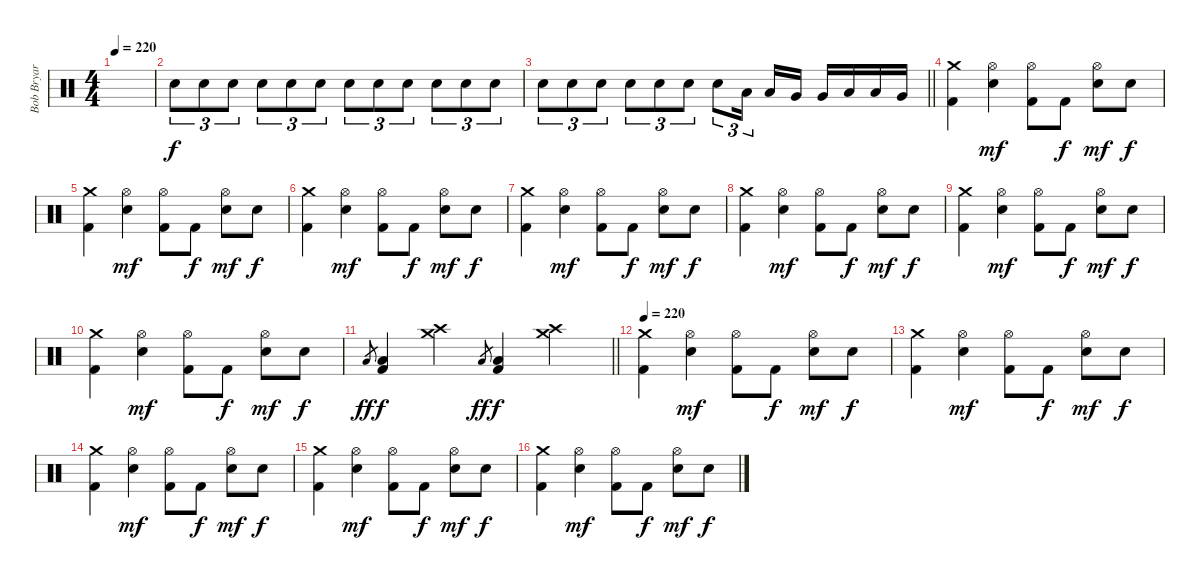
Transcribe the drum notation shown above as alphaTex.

\track ("Bob Bryar" "Bob Bryar") {instrument percussion}
\staff {score}
\articulation defaults
\ts (4 4)
\tempo 220
\clef neutral
\ks c
|
"Snare (hit) 2".8{tu (3 2)} "Snare (hit) 2".8{tu (3 2)} "Snare (hit) 2".8{tu (3 2)} "Snare (hit) 2".8{tu (3 2)} "Snare (hit) 2".8{tu (3 2)} "Snare (hit) 2".8{tu (3 2)} "Snare (hit) 2".8{tu (3 2)} "Snare (hit) 2".8{tu (3 2)} "Snare (hit) 2".8{tu (3 2)} "Snare (hit) 2".8{tu (3 2)} "Snare (hit) 2".8{tu (3 2)} "Snare (hit) 2".8{tu (3 2)} |
\barLineRight lightlight "Snare (hit) 2".8{tu (3 2)} "Snare (hit) 2".8{tu (3 2)} "Snare (hit) 2".8{tu (3 2)} "Snare (hit) 2".8{tu (3 2)} "Snare (hit) 2".8{tu (3 2)} "Snare (hit) 2".8{tu (3 2)} "Snare (hit) 2".8{tu (3 2)} "Low Tom (hit)".16{tu (3 2) beam splitsecondary} "Low Tom (hit)".16 "Very Low Tom (hit)".16 "Very Low Tom (hit)".16 "Low Floor Tom (hit)".16 "Low Floor Tom (hit)".16 "Very Low Tom (hit)".16
|
("Crash medium (hit)" "Kick (hit) 2").4 ("Hi-Hat (open)" "Electric Snare (hit)").4{dy mf} ("Hi-Hat (open)" "Kick (hit) 2").8 "Kick (hit) 2".8{dy f} ("Hi-Hat (open)" "Electric Snare (hit)").8{dy mf} "Electric Snare (hit)".8{dy f} |
("Crash medium (hit)" "Kick (hit) 2").4 ("Hi-Hat (open)" "Electric Snare (hit)").4{dy mf} ("Hi-Hat (open)" "Kick (hit) 2").8 "Kick (hit) 2".8{dy f} ("Hi-Hat (open)" "Electric Snare (hit)").8{dy mf} "Electric Snare (hit)".8{dy f} |
("Crash medium (hit)" "Kick (hit) 2").4 ("Hi-Hat (open)" "Electric Snare (hit)").4{dy mf} ("Hi-Hat (open)" "Kick (hit) 2").8 "Kick (hit) 2".8{dy f} ("Hi-Hat (open)" "Electric Snare (hit)").8{dy mf} "Electric Snare (hit)".8{dy f} |
("Crash medium (hit)" "Kick (hit) 2").4 ("Hi-Hat (open)" "Electric Snare (hit)").4{dy mf} ("Hi-Hat (open)" "Kick (hit) 2").8 "Kick (hit) 2".8{dy f} ("Hi-Hat (open)" "Electric Snare (hit)").8{dy mf} "Electric Snare (hit)".8{dy f} |
("Crash medium (hit)" "Kick (hit) 2").4 ("Hi-Hat (open)" "Electric Snare (hit)").4{dy mf} ("Hi-Hat (open)" "Kick (hit) 2").8 "Kick (hit) 2".8{dy f} ("Hi-Hat (open)" "Electric Snare (hit)").8{dy mf} "Electric Snare (hit)".8{dy f} |
("Crash medium (hit)" "Kick (hit) 2").4 ("Hi-Hat (open)" "Electric Snare (hit)").4{dy mf} ("Hi-Hat (open)" "Kick (hit) 2").8 "Kick (hit) 2".8{dy f} ("Hi-Hat (open)" "Electric Snare (hit)").8{dy mf} "Electric Snare (hit)".8{dy f} |
("Crash medium (hit)" "Kick (hit) 2").4 ("Hi-Hat (open)" "Electric Snare (hit)").4{dy mf} ("Hi-Hat (open)" "Kick (hit) 2").8 "Kick (hit) 2".8{dy f} ("Hi-Hat (open)" "Electric Snare (hit)").8{dy mf} "Electric Snare (hit)".8{dy f} |
\barLineRight lightlight "Low Floor Tom (hit)".8{gr dy ff}
("Low Floor Tom (hit)" "Kick (hit) 2").4{dy f} ("Crash medium (hit)" "Crash high (hit)").4 "Low Floor Tom (hit)".8{gr dy ff} ("Low Floor Tom (hit)" "Kick (hit) 2").4{dy f} ("Crash medium (hit)" "Crash high (hit)").4 |
\tempo 220
("Crash medium (hit)" "Kick (hit) 2").4 ("Hi-Hat (open)" "Electric Snare (hit)").4{dy mf} ("Hi-Hat (open)" "Kick (hit) 2").8 "Kick (hit) 2".8{dy f} ("Hi-Hat (open)" "Electric Snare (hit)").8{dy mf} "Electric Snare (hit)".8{dy f} |
("Crash medium (hit)" "Kick (hit) 2").4 ("Hi-Hat (open)" "Electric Snare (hit)").4{dy mf} ("Hi-Hat (open)" "Kick (hit) 2").8 "Kick (hit) 2".8{dy f} ("Hi-Hat (open)" "Electric Snare (hit)").8{dy mf} "Electric Snare (hit)".8{dy f} |
("Crash medium (hit)" "Kick (hit) 2").4 ("Hi-Hat (open)" "Electric Snare (hit)").4{dy mf} ("Hi-Hat (open)" "Kick (hit) 2").8 "Kick (hit) 2".8{dy f} ("Hi-Hat (open)" "Electric Snare (hit)").8{dy mf} "Electric Snare (hit)".8{dy f} |
("Crash medium (hit)" "Kick (hit) 2").4 ("Hi-Hat (open)" "Electric Snare (hit)").4{dy mf} ("Hi-Hat (open)" "Kick (hit) 2").8 "Kick (hit) 2".8{dy f} ("Hi-Hat (open)" "Electric Snare (hit)").8{dy mf} "Electric Snare (hit)".8{dy f} |
("Crash medium (hit)" "Kick (hit) 2").4 ("Hi-Hat (open)" "Electric Snare (hit)").4{dy mf} ("Hi-Hat (open)" "Kick (hit) 2").8 "Kick (hit) 2".8{dy f} ("Hi-Hat (open)" "Electric Snare (hit)").8{dy mf} "Electric Snare (hit)".8{dy f}
